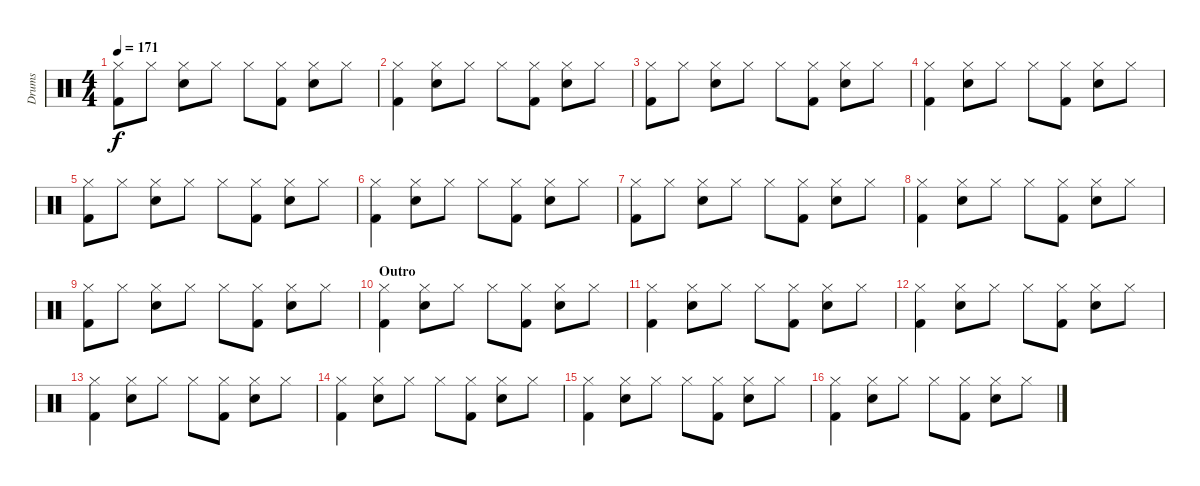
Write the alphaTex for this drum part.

\track ("Drums" "Drums") {instrument percussion}
\staff {score}
\articulation defaults
\ts (4 4)
\tempo 171
\clef neutral
\ks c
("Hi-Hat (closed)" "Kick (hit) 2").8{dy f} "Hi-Hat (closed)".8 ("Hi-Hat (closed)" "Electric Snare (hit)").8 "Hi-Hat (closed)".8 "Hi-Hat (closed)".8 ("Hi-Hat (closed)" "Kick (hit) 2").8 ("Hi-Hat (closed)" "Electric Snare (hit)").8 "Hi-Hat (closed)".8 |
("Hi-Hat (closed)" "Kick (hit) 2").4 ("Hi-Hat (closed)" "Electric Snare (hit)").8 "Hi-Hat (closed)".8 "Hi-Hat (closed)".8 ("Hi-Hat (closed)" "Kick (hit) 2").8 ("Hi-Hat (closed)" "Electric Snare (hit)").8 "Hi-Hat (closed)".8 |
("Hi-Hat (closed)" "Kick (hit) 2").8 "Hi-Hat (closed)".8 ("Hi-Hat (closed)" "Electric Snare (hit)").8 "Hi-Hat (closed)".8 "Hi-Hat (closed)".8 ("Hi-Hat (closed)" "Kick (hit) 2").8 ("Hi-Hat (closed)" "Electric Snare (hit)").8 "Hi-Hat (closed)".8 |
("Hi-Hat (closed)" "Kick (hit) 2").4 ("Hi-Hat (closed)" "Electric Snare (hit)").8 "Hi-Hat (closed)".8 "Hi-Hat (closed)".8 ("Hi-Hat (closed)" "Kick (hit) 2").8 ("Hi-Hat (closed)" "Electric Snare (hit)").8 "Hi-Hat (closed)".8 |
("Hi-Hat (closed)" "Kick (hit) 2").8 "Hi-Hat (closed)".8 ("Hi-Hat (closed)" "Electric Snare (hit)").8 "Hi-Hat (closed)".8 "Hi-Hat (closed)".8 ("Hi-Hat (closed)" "Kick (hit) 2").8 ("Hi-Hat (closed)" "Electric Snare (hit)").8 "Hi-Hat (closed)".8 |
("Hi-Hat (closed)" "Kick (hit) 2").4 ("Hi-Hat (closed)" "Electric Snare (hit)").8 "Hi-Hat (closed)".8 "Hi-Hat (closed)".8 ("Hi-Hat (closed)" "Kick (hit) 2").8 ("Hi-Hat (closed)" "Electric Snare (hit)").8 "Hi-Hat (closed)".8 |
("Hi-Hat (closed)" "Kick (hit) 2").8 "Hi-Hat (closed)".8 ("Hi-Hat (closed)" "Electric Snare (hit)").8 "Hi-Hat (closed)".8 "Hi-Hat (closed)".8 ("Hi-Hat (closed)" "Kick (hit) 2").8 ("Hi-Hat (closed)" "Electric Snare (hit)").8 "Hi-Hat (closed)".8 |
("Hi-Hat (closed)" "Kick (hit) 2").4 ("Hi-Hat (closed)" "Electric Snare (hit)").8 "Hi-Hat (closed)".8 "Hi-Hat (closed)".8 ("Hi-Hat (closed)" "Kick (hit) 2").8 ("Hi-Hat (closed)" "Electric Snare (hit)").8 "Hi-Hat (closed)".8 |
("Hi-Hat (closed)" "Kick (hit) 2").8 "Hi-Hat (closed)".8 ("Hi-Hat (closed)" "Electric Snare (hit)").8 "Hi-Hat (closed)".8 "Hi-Hat (closed)".8 ("Hi-Hat (closed)" "Kick (hit) 2").8 ("Hi-Hat (closed)" "Electric Snare (hit)").8 "Hi-Hat (closed)".8 |
\section ("" "Outro")
("Hi-Hat (closed)" "Kick (hit) 2").4 ("Hi-Hat (closed)" "Electric Snare (hit)").8 "Hi-Hat (closed)".8 "Hi-Hat (closed)".8 ("Hi-Hat (closed)" "Kick (hit) 2").8 ("Hi-Hat (closed)" "Electric Snare (hit)").8 "Hi-Hat (closed)".8 |
("Hi-Hat (closed)" "Kick (hit) 2").4 ("Hi-Hat (closed)" "Electric Snare (hit)").8 "Hi-Hat (closed)".8 "Hi-Hat (closed)".8 ("Hi-Hat (closed)" "Kick (hit) 2").8 ("Hi-Hat (closed)" "Electric Snare (hit)").8 "Hi-Hat (closed)".8 |
("Hi-Hat (closed)" "Kick (hit) 2").4 ("Hi-Hat (closed)" "Electric Snare (hit)").8 "Hi-Hat (closed)".8 "Hi-Hat (closed)".8 ("Hi-Hat (closed)" "Kick (hit) 2").8 ("Hi-Hat (closed)" "Electric Snare (hit)").8 "Hi-Hat (closed)".8 |
("Hi-Hat (closed)" "Kick (hit) 2").4 ("Hi-Hat (closed)" "Electric Snare (hit)").8 "Hi-Hat (closed)".8 "Hi-Hat (closed)".8 ("Hi-Hat (closed)" "Kick (hit) 2").8 ("Hi-Hat (closed)" "Electric Snare (hit)").8 "Hi-Hat (closed)".8 |
("Hi-Hat (closed)" "Kick (hit) 2").4 ("Hi-Hat (closed)" "Electric Snare (hit)").8 "Hi-Hat (closed)".8 "Hi-Hat (closed)".8 ("Hi-Hat (closed)" "Kick (hit) 2").8 ("Hi-Hat (closed)" "Electric Snare (hit)").8 "Hi-Hat (closed)".8 |
("Hi-Hat (closed)" "Kick (hit) 2").4 ("Hi-Hat (closed)" "Electric Snare (hit)").8 "Hi-Hat (closed)".8 "Hi-Hat (closed)".8 ("Hi-Hat (closed)" "Kick (hit) 2").8 ("Hi-Hat (closed)" "Electric Snare (hit)").8 "Hi-Hat (closed)".8 |
("Hi-Hat (closed)" "Kick (hit) 2").4 ("Hi-Hat (closed)" "Electric Snare (hit)").8 "Hi-Hat (closed)".8 "Hi-Hat (closed)".8 ("Hi-Hat (closed)" "Kick (hit) 2").8 ("Hi-Hat (closed)" "Electric Snare (hit)").8 "Hi-Hat (closed)".8
